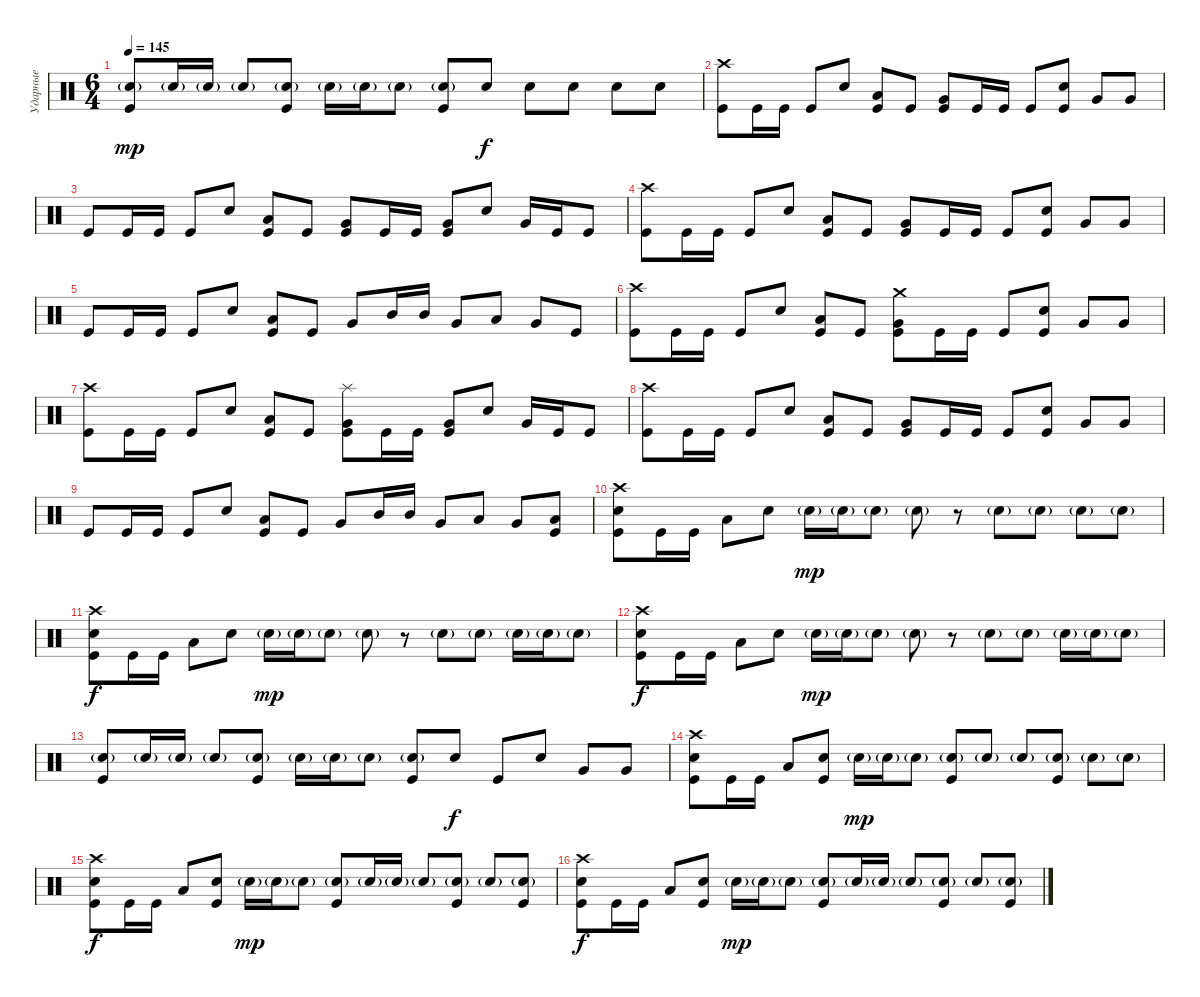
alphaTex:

\track ("Ударные" "Ударные") {instrument percussion}
\staff {score}
\articulation defaults
\ts (6 4)
\tempo 145
\clef neutral
\ks c
("Electric Snare (hit)"{g} "Kick (hit)").8{dy mp} "Electric Snare (hit)"{g}.16 "Electric Snare (hit)"{g}.16 "Electric Snare (hit)"{g}.8 ("Electric Snare (hit)"{g} "Kick (hit)").8 "Electric Snare (hit)"{g}.16 "Electric Snare (hit)"{g}.16 "Electric Snare (hit)"{g}.8 ("Electric Snare (hit)"{g} "Kick (hit)").8 "Electric Snare (hit)".8{dy f} "Electric Snare (hit)".8 "Electric Snare (hit)".8 "Electric Snare (hit)".8 "Electric Snare (hit)".8 |
("Crash high (hit)" "Kick (hit)").8 "Kick (hit)".16 "Kick (hit)".16 "Kick (hit)".8 "Electric Snare (hit)".8 ("Low Tom (hit)" "Kick (hit)").8 "Kick (hit)".8 ("Very Low Tom (hit)" "Kick (hit)").8 "Kick (hit)".16 "Kick (hit)".16 "Kick (hit)".8 ("Electric Snare (hit)" "Kick (hit)").8 "Very Low Tom (hit)".8 "Very Low Tom (hit)".8 |
"Kick (hit)".8 "Kick (hit)".16 "Kick (hit)".16 "Kick (hit)".8 "Electric Snare (hit)".8 ("Low Tom (hit)" "Kick (hit)").8 "Kick (hit)".8 ("Very Low Tom (hit)" "Kick (hit)").8 "Kick (hit)".16 "Kick (hit)".16 ("Very Low Tom (hit)" "Kick (hit)").8 "Electric Snare (hit)".8 "Very Low Tom (hit)".16 "Kick (hit)".16 "Kick (hit)".8 |
("Crash high (hit)" "Kick (hit)").8 "Kick (hit)".16 "Kick (hit)".16 "Kick (hit)".8 "Electric Snare (hit)".8 ("Low Tom (hit)" "Kick (hit)").8 "Kick (hit)".8 ("Very Low Tom (hit)" "Kick (hit)").8 "Kick (hit)".16 "Kick (hit)".16 "Kick (hit)".8 ("Electric Snare (hit)" "Kick (hit)").8 "Very Low Tom (hit)".8 "Very Low Tom (hit)".8 |
"Kick (hit)".8 "Kick (hit)".16 "Kick (hit)".16 "Kick (hit)".8 "Electric Snare (hit)".8 ("Low Tom (hit)" "Kick (hit)").8 "Kick (hit)".8 "Very Low Tom (hit)".8 "Mid Tom (hit)".16 "Mid Tom (hit)".16 "Very Low Tom (hit)".8 "Low Tom (hit)".8 "Very Low Tom (hit)".8 "Kick (hit)".8 |
("Crash high (hit)" "Kick (hit)").8 "Kick (hit)".16 "Kick (hit)".16 "Kick (hit)".8 "Electric Snare (hit)".8 ("Low Tom (hit)" "Kick (hit)").8 "Kick (hit)".8 ("Crash medium (hit)" "Very Low Tom (hit)" "Kick (hit)").8 "Kick (hit)".16 "Kick (hit)".16 "Kick (hit)".8 ("Electric Snare (hit)" "Kick (hit)").8 "Very Low Tom (hit)".8 "Very Low Tom (hit)".8 |
("Crash high (hit)" "Kick (hit)").8 "Kick (hit)".16 "Kick (hit)".16 "Kick (hit)".8 "Electric Snare (hit)".8 ("Low Tom (hit)" "Kick (hit)").8 "Kick (hit)".8 ("Splash (hit)" "Very Low Tom (hit)" "Kick (hit)").8 "Kick (hit)".16 "Kick (hit)".16 ("Very Low Tom (hit)" "Kick (hit)").8 "Electric Snare (hit)".8 "Very Low Tom (hit)".16 "Kick (hit)".16 "Kick (hit)".8 |
("Crash high (hit)" "Kick (hit)").8 "Kick (hit)".16 "Kick (hit)".16 "Kick (hit)".8 "Electric Snare (hit)".8 ("Low Tom (hit)" "Kick (hit)").8 "Kick (hit)".8 ("Very Low Tom (hit)" "Kick (hit)").8 "Kick (hit)".16 "Kick (hit)".16 "Kick (hit)".8 ("Electric Snare (hit)" "Kick (hit)").8 "Very Low Tom (hit)".8 "Very Low Tom (hit)".8 |
"Kick (hit)".8 "Kick (hit)".16 "Kick (hit)".16 "Kick (hit)".8 "Electric Snare (hit)".8 ("Low Tom (hit)" "Kick (hit)").8 "Kick (hit)".8 "Very Low Tom (hit)".8 "Mid Tom (hit)".16 "Mid Tom (hit)".16 "Very Low Tom (hit)".8 "Low Tom (hit)".8 "Very Low Tom (hit)".8 ("Low Tom (hit)" "Kick (hit)").8 |
("Crash high (hit)" "Electric Snare (hit)" "Kick (hit)").8 "Kick (hit)".16 "Kick (hit)".16 "Low Tom (hit)".8 "Electric Snare (hit)".8 "Electric Snare (hit)"{g}.16{dy mp} "Electric Snare (hit)"{g}.16 "Electric Snare (hit)"{g}.8 "Electric Snare (hit)"{g}.8 r.8 "Electric Snare (hit)"{g}.8 "Electric Snare (hit)"{g}.8 "Electric Snare (hit)"{g}.8 "Electric Snare (hit)"{g}.8 |
("Crash high (hit)" "Electric Snare (hit)" "Kick (hit)").8{dy f} "Kick (hit)".16 "Kick (hit)".16 "Low Tom (hit)".8 "Electric Snare (hit)".8 "Electric Snare (hit)"{g}.16{dy mp} "Electric Snare (hit)"{g}.16 "Electric Snare (hit)"{g}.8 "Electric Snare (hit)"{g}.8 r.8 "Electric Snare (hit)"{g}.8 "Electric Snare (hit)"{g}.8 "Electric Snare (hit)"{g}.16 "Electric Snare (hit)"{g}.16 "Electric Snare (hit)"{g}.8 |
("Crash high (hit)" "Electric Snare (hit)" "Kick (hit)").8{dy f} "Kick (hit)".16 "Kick (hit)".16 "Low Tom (hit)".8 "Electric Snare (hit)".8 "Electric Snare (hit)"{g}.16{dy mp} "Electric Snare (hit)"{g}.16 "Electric Snare (hit)"{g}.8 "Electric Snare (hit)"{g}.8 r.8 "Electric Snare (hit)"{g}.8 "Electric Snare (hit)"{g}.8 "Electric Snare (hit)"{g}.16 "Electric Snare (hit)"{g}.16 "Electric Snare (hit)"{g}.8 |
("Electric Snare (hit)"{g} "Kick (hit)").8 "Electric Snare (hit)"{g}.16 "Electric Snare (hit)"{g}.16 "Electric Snare (hit)"{g}.8 ("Electric Snare (hit)"{g} "Kick (hit)").8 "Electric Snare (hit)"{g}.16 "Electric Snare (hit)"{g}.16 "Electric Snare (hit)"{g}.8 ("Electric Snare (hit)"{g} "Kick (hit)").8 "Electric Snare (hit)".8{dy f} "Kick (hit)".8 "Electric Snare (hit)".8 "Very Low Tom (hit)".8 "Very Low Tom (hit)".8 |
("Crash high (hit)" "Electric Snare (hit)" "Kick (hit)").8 "Kick (hit)".16 "Kick (hit)".16 "Low Tom (hit)".8 ("Electric Snare (hit)" "Kick (hit)").8 "Electric Snare (hit)"{g}.16{dy mp} "Electric Snare (hit)"{g}.16 "Electric Snare (hit)"{g}.8 ("Electric Snare (hit)"{g} "Kick (hit)").8 "Electric Snare (hit)"{g}.8 "Electric Snare (hit)"{g}.8 ("Electric Snare (hit)"{g} "Kick (hit)").8 "Electric Snare (hit)"{g}.8 "Electric Snare (hit)"{g}.8 |
("Crash high (hit)" "Electric Snare (hit)" "Kick (hit)").8{dy f} "Kick (hit)".16 "Kick (hit)".16 "Low Tom (hit)".8 ("Electric Snare (hit)" "Kick (hit)").8 "Electric Snare (hit)"{g}.16{dy mp} "Electric Snare (hit)"{g}.16 "Electric Snare (hit)"{g}.8 ("Electric Snare (hit)"{g} "Kick (hit)").8 "Electric Snare (hit)"{g}.16 "Electric Snare (hit)"{g}.16 "Electric Snare (hit)"{g}.8 ("Electric Snare (hit)"{g} "Kick (hit)").8 "Electric Snare (hit)"{g}.8 ("Electric Snare (hit)"{g} "Kick (hit)").8 |
("Crash high (hit)" "Electric Snare (hit)" "Kick (hit)").8{dy f} "Kick (hit)".16 "Kick (hit)".16 "Low Tom (hit)".8 ("Electric Snare (hit)" "Kick (hit)").8 "Electric Snare (hit)"{g}.16{dy mp} "Electric Snare (hit)"{g}.16 "Electric Snare (hit)"{g}.8 ("Electric Snare (hit)"{g} "Kick (hit)").8 "Electric Snare (hit)"{g}.16 "Electric Snare (hit)"{g}.16 "Electric Snare (hit)"{g}.8 ("Electric Snare (hit)"{g} "Kick (hit)").8 "Electric Snare (hit)"{g}.8 ("Electric Snare (hit)"{g} "Kick (hit)").8
